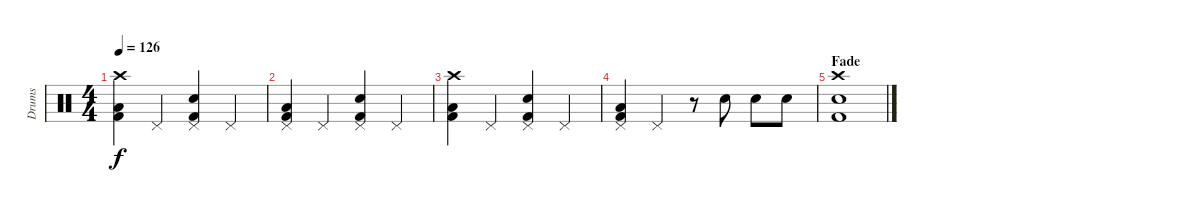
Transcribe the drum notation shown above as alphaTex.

\track ("Drums" "Drums") {instrument percussion}
\staff {score}
\articulation defaults
\ts (4 4)
\tempo 126
\clef neutral
\ks c
("Crash high (hit)" "Kick (hit) 2" "Low Floor Tom (hit)").4{dy f} "Pedal Hi-Hat (hit)".4 ("Pedal Hi-Hat (hit)" "Kick (hit) 2" "Electric Snare (hit)").4 "Pedal Hi-Hat (hit)".4 |
("Pedal Hi-Hat (hit)" "Kick (hit) 2" "Low Floor Tom (hit)").4 "Pedal Hi-Hat (hit)".4 ("Pedal Hi-Hat (hit)" "Kick (hit) 2" "Electric Snare (hit)").4 "Pedal Hi-Hat (hit)".4 |
("Crash high (hit)" "Kick (hit) 2" "Low Floor Tom (hit)").4 "Pedal Hi-Hat (hit)".4 ("Pedal Hi-Hat (hit)" "Kick (hit) 2" "Electric Snare (hit)").4 "Pedal Hi-Hat (hit)".4 |
("Pedal Hi-Hat (hit)" "Kick (hit) 2" "Low Floor Tom (hit)").4 "Pedal Hi-Hat (hit)".4 r.8 "Electric Snare (hit)".8 "Electric Snare (hit)".8 "Electric Snare (hit)".8 |
\section ("" "Fade")
("Crash high (hit)" "Kick (hit) 2" "Electric Snare (hit)").1
